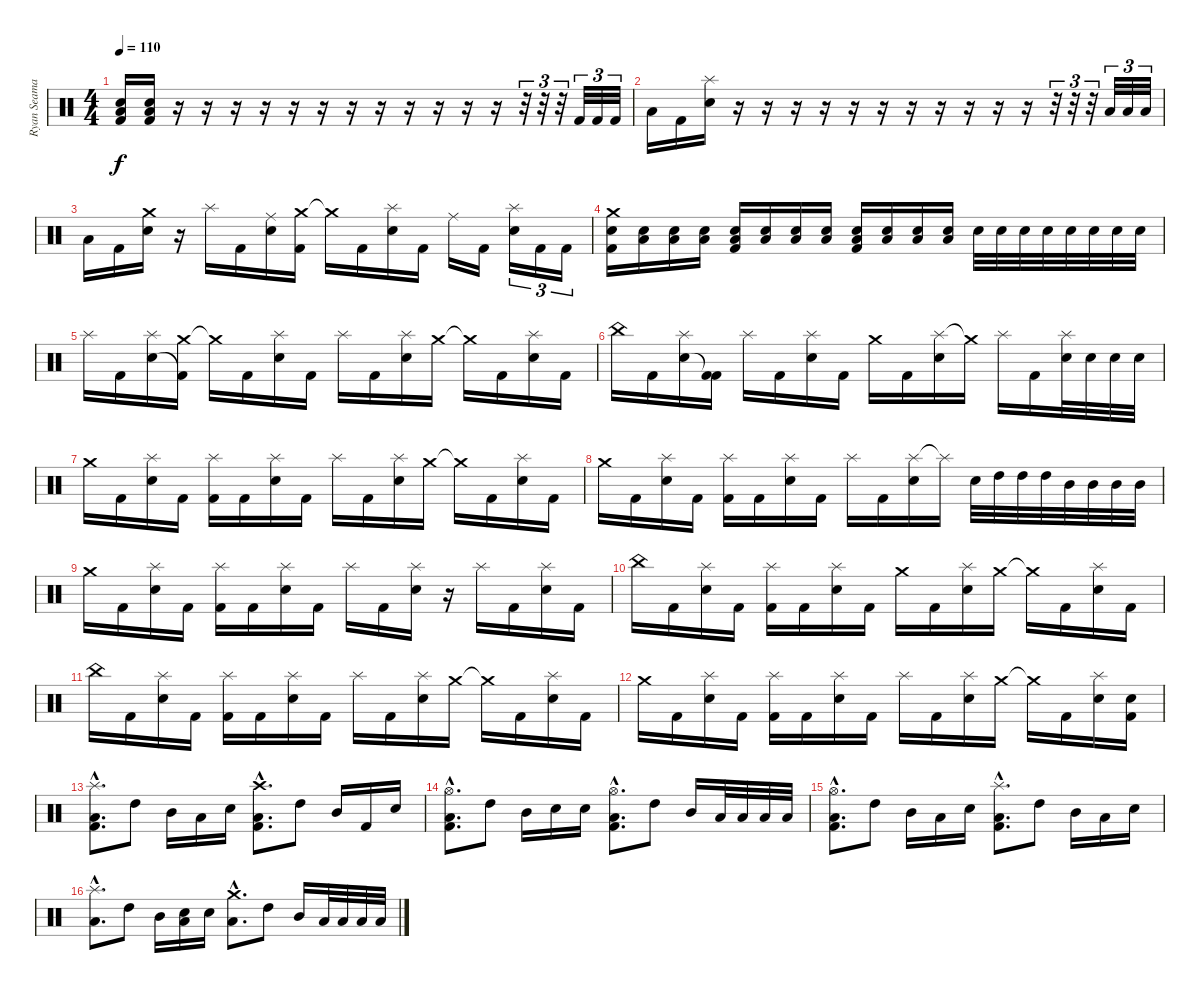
\track ("Ryan Seaman-Drums" "Ryan Seama") {instrument percussion}
\staff {score}
\articulation defaults
\ts (4 4)
\tempo 110
\clef neutral
\ks c
("Kick (hit) 2" "Electric Snare (hit)" "Low Floor Tom (hit)").16{dy f} ("Kick (hit) 2" "Electric Snare (hit)" "Low Floor Tom (hit)").16 r.16 r.16 r.16 r.16 r.16 r.16 r.16 r.16 r.16 r.16 r.16 r.16 r.32{tu (3 2)} r.32{tu (3 2)} r.32{tu (3 2)} "Kick (hit) 2".32{tu (3 2)} "Kick (hit) 2".32{tu (3 2)} "Kick (hit) 2".32{tu (3 2)} |
"Low Tom (hit)".16 "Kick (hit) 2".16 ("Splash (hit)" "Electric Snare (hit)").16 r.16 r.16 r.16 r.16 r.16 r.16 r.16 r.16 r.16 r.16 r.16 r.32{tu (3 2)} r.32{tu (3 2)} r.32{tu (3 2)} "Low Tom (hit)".32{tu (3 2)} "Low Tom (hit)".32{tu (3 2)} "Low Tom (hit)".32{tu (3 2)} |
"Low Tom (hit)".16 "Kick (hit) 2".16 ("Crash medium (hit)" "Electric Snare (hit)").16 r.16 "Splash (hit)".16 "Kick (hit) 2".16 ("Ride (middle)" "Electric Snare (hit)").16 ("Crash medium (hit)" "Kick (hit) 2").16 "Crash medium (hit)"{t}.16 "Kick (hit) 2".16 ("Splash (hit)" "Electric Snare (hit)").16 "Kick (hit) 2".16 "Ride (middle)".16 "Kick (hit) 2".16 ("Splash (hit)" "Electric Snare (hit)").16{tu (3 2)} "Kick (hit) 2".16{tu (3 2)} "Kick (hit) 2".16{tu (3 2)} |
("Electric Snare (hit)" "Kick (hit) 2" "Crash medium (hit)").16 ("Electric Snare (hit)" "Low Floor Tom (hit)").16 ("Electric Snare (hit)" "Low Floor Tom (hit)").16 ("Electric Snare (hit)" "Low Floor Tom (hit)").16 ("Electric Snare (hit)" "Kick (hit) 2" "Low Floor Tom (hit)").16 ("Electric Snare (hit)" "Low Floor Tom (hit)").16 ("Electric Snare (hit)" "Low Floor Tom (hit)").16 ("Electric Snare (hit)" "Low Floor Tom (hit)").16 ("Electric Snare (hit)" "Kick (hit) 2" "Low Floor Tom (hit)").16 ("Electric Snare (hit)" "Low Floor Tom (hit)").16 ("Electric Snare (hit)" "Low Floor Tom (hit)").16 ("Electric Snare (hit)" "Low Floor Tom (hit)").16 "Electric Snare (hit)".32 "Electric Snare (hit)".32 "Electric Snare (hit)".32 "Electric Snare (hit)".32 "Electric Snare (hit)".32 "Electric Snare (hit)".32 "Electric Snare (hit)".32 "Electric Snare (hit)".32 |
"Splash (hit)".16 "Kick (hit) 2".16 ("Splash (hit)" "Electric Snare (hit)").16 ("Crash medium (hit)" "Kick (hit) 2"{t}).16 "Crash medium (hit)"{t}.16 "Kick (hit) 2".16 ("Splash (hit)" "Electric Snare (hit)").16 "Kick (hit) 2".16 "Splash (hit)".16 "Kick (hit) 2".16 ("Splash (hit)" "Electric Snare (hit)").16 "Crash medium (hit)".16 "Crash medium (hit)"{t}.16 "Kick (hit) 2".16 ("Electric Snare (hit)" "Splash (hit)").16 "Kick (hit) 2".16 |
"China (hit)".16 "Kick (hit) 2".16 ("Splash (hit)" "Electric Snare (hit)").16 ("Kick (hit) 2" "Kick (hit) 2"{t}).16 "Splash (hit)".16 "Kick (hit) 2".16 ("Splash (hit)" "Electric Snare (hit)").16 "Kick (hit) 2".16 "Crash medium (hit)".16 "Kick (hit) 2".16 ("Splash (hit)" "Electric Snare (hit)").16 "Crash medium (hit)"{t}.16 "Splash (hit)".16 "Kick (hit) 2".16 ("Electric Snare (hit)" "Splash (hit)").32 "Electric Snare (hit)".32 "Electric Snare (hit)".32 "Electric Snare (hit)".32 |
"Crash medium (hit)".16 "Kick (hit) 2".16 ("Splash (hit)" "Electric Snare (hit)").16 "Kick (hit) 2".16 ("Splash (hit)" "Kick (hit) 2").16 "Kick (hit) 2".16 ("Splash (hit)" "Electric Snare (hit)").16 "Kick (hit) 2".16 "Splash (hit)".16 "Kick (hit) 2".16 ("Splash (hit)" "Electric Snare (hit)").16 "Crash medium (hit)".16 "Crash medium (hit)"{t}.16 "Kick (hit) 2".16 ("Electric Snare (hit)" "Splash (hit)").16 "Kick (hit) 2".16 |
"Crash medium (hit)".16 "Kick (hit) 2".16 ("Splash (hit)" "Electric Snare (hit)").16 "Kick (hit) 2".16 ("Splash (hit)" "Kick (hit) 2").16 "Kick (hit) 2".16 ("Splash (hit)" "Electric Snare (hit)").16 "Kick (hit) 2".16 "Splash (hit)".16 "Kick (hit) 2".16 ("Splash (hit)" "Electric Snare (hit)").16 "Splash (hit)"{t}.16 "Electric Snare (hit)".32 "High Tom (hit)".32 "High Tom (hit)".32 "High Tom (hit)".32 "Mid Tom (hit)".32 "Mid Tom (hit)".32 "Mid Tom (hit)".32 "Mid Tom (hit)".32 |
"Crash medium (hit)".16 "Kick (hit) 2".16 ("Splash (hit)" "Electric Snare (hit)").16 "Kick (hit) 2".16 ("Splash (hit)" "Kick (hit) 2").16 "Kick (hit) 2".16 ("Splash (hit)" "Electric Snare (hit)").16 "Kick (hit) 2".16 "Splash (hit)".16 "Kick (hit) 2".16 ("Splash (hit)" "Electric Snare (hit)").16 r.16 "Splash (hit)".16 "Kick (hit) 2".16 ("Electric Snare (hit)" "Splash (hit)").16 "Kick (hit) 2".16 |
"China (hit)".16 "Kick (hit) 2".16 ("Splash (hit)" "Electric Snare (hit)").16 "Kick (hit) 2".16 ("Splash (hit)" "Kick (hit) 2").16 "Kick (hit) 2".16 ("Splash (hit)" "Electric Snare (hit)").16 "Kick (hit) 2".16 "Crash medium (hit)".16 "Kick (hit) 2".16 ("Splash (hit)" "Electric Snare (hit)").16 "Crash medium (hit)".16 "Crash medium (hit)"{t}.16 "Kick (hit) 2".16 ("Electric Snare (hit)" "Splash (hit)").16 "Kick (hit) 2".16 |
"China (hit)".16 "Kick (hit) 2".16 ("Splash (hit)" "Electric Snare (hit)").16 "Kick (hit) 2".16 ("Splash (hit)" "Kick (hit) 2").16 "Kick (hit) 2".16 ("Splash (hit)" "Electric Snare (hit)").16 "Kick (hit) 2".16 "Splash (hit)".16 "Kick (hit) 2".16 ("Splash (hit)" "Electric Snare (hit)").16 "Crash medium (hit)".16 "Crash medium (hit)"{t}.16 "Kick (hit) 2".16 ("Electric Snare (hit)" "Splash (hit)").16 "Kick (hit) 2".16 |
"Crash medium (hit)".16 "Kick (hit) 2".16 ("Splash (hit)" "Electric Snare (hit)").16 "Kick (hit) 2".16 ("Splash (hit)" "Kick (hit) 2").16 "Kick (hit) 2".16 ("Splash (hit)" "Electric Snare (hit)").16 "Kick (hit) 2".16 "Splash (hit)".16 "Kick (hit) 2".16 ("Splash (hit)" "Electric Snare (hit)").16 "Crash medium (hit)".16 "Crash medium (hit)"{t}.16 "Kick (hit) 2".16 ("Electric Snare (hit)" "Splash (hit)").16 ("Electric Snare (hit)" "Kick (hit) 2").16 |
("Splash (hit)"{hac} "Low Floor Tom (hit)" "Kick (hit) 2"{hac}).8{d} "High Tom (hit)".8 "Mid Tom (hit)".16 "Low Tom (hit)".16 "Electric Snare (hit)".16 ("Crash high (hit)"{hac} "Low Floor Tom (hit)"{hac} "Kick (hit) 2"{hac}).8{d} "High Tom (hit)".8 "Mid Tom (hit)".16 "Kick (hit) 2".16 "Electric Snare (hit)".16 |
("Hi-Hat (open)"{hac} "Low Floor Tom (hit)" "Kick (hit) 2"{hac}).8{d} "High Tom (hit)".8 "Mid Tom (hit)".16 "Electric Snare (hit)".16 "Electric Snare (hit)".16 ("Hi-Hat (open)"{hac} "Low Floor Tom (hit)"{hac} "Kick (hit) 2"{hac}).8{d} "High Tom (hit)".8 "Mid Tom (hit)".16 "Low Floor Tom (hit)".32 "Low Floor Tom (hit)".32 "Low Floor Tom (hit)".32 "Low Floor Tom (hit)".32 |
("Hi-Hat (open)"{hac} "Low Floor Tom (hit)" "Kick (hit) 2"{hac}).8{d} "High Tom (hit)".8 "Mid Tom (hit)".16 "Low Tom (hit)".16 "Electric Snare (hit)".16 ("Splash (hit)"{hac} "Low Floor Tom (hit)"{hac} "Kick (hit) 2"{hac}).8{d} "High Tom (hit)".8 "Mid Tom (hit)".16 "Low Tom (hit)".16 "Electric Snare (hit)".16 |
("Splash (hit)"{hac} "Low Floor Tom (hit)").8{d} "High Tom (hit)".8 "Mid Tom (hit)".16 ("Low Tom (hit)" "Electric Snare (hit)").16 "Electric Snare (hit)".16 ("Crash medium (hit)"{hac} "Low Floor Tom (hit)"{hac}).8{d} "High Tom (hit)".8 "Mid Tom (hit)".16 "Low Floor Tom (hit)".32 "Low Floor Tom (hit)".32 "Low Floor Tom (hit)".32 "Low Floor Tom (hit)".32
